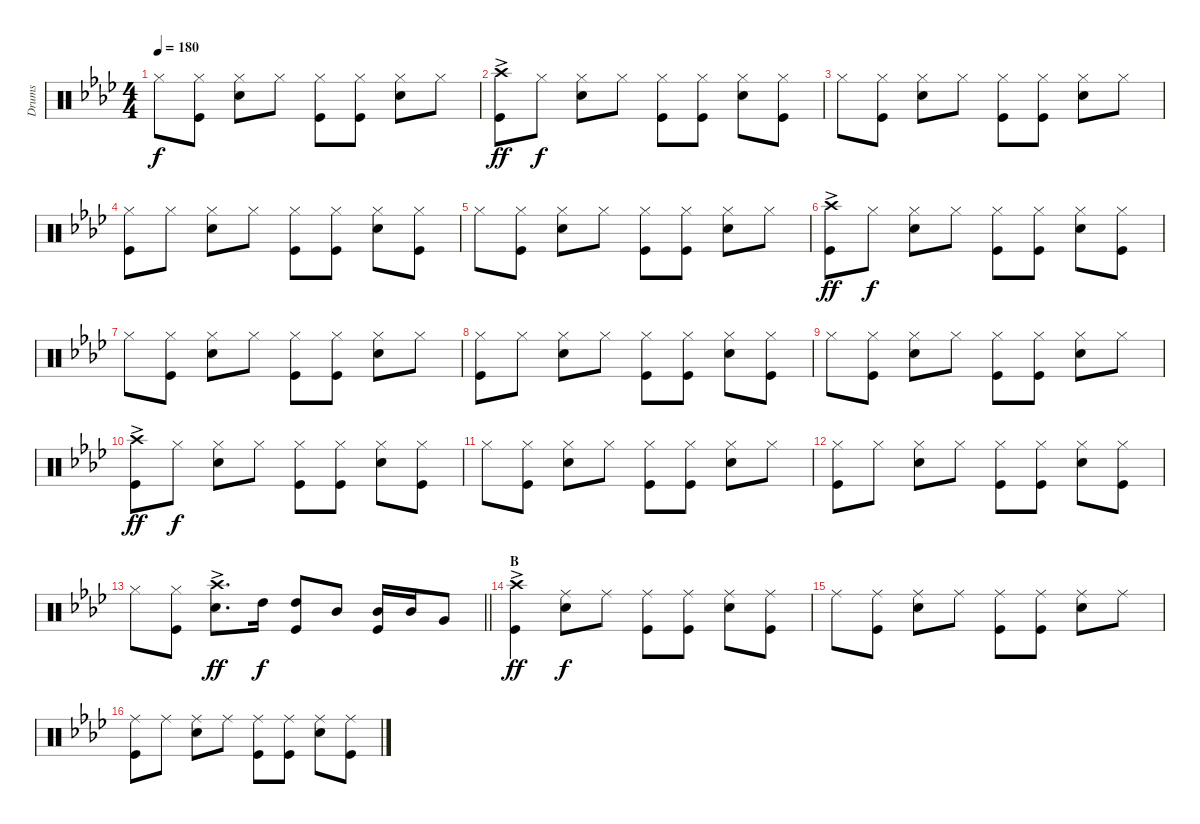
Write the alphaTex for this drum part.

\track ("Drums" "Drums") {instrument percussion}
\staff {score}
\articulation defaults
\ts (4 4)
\tempo 180
\clef neutral
\ks ab "Hi-Hat (closed)".8{dy f}
("Hi-Hat (closed)" "Kick (hit)").8 ("Hi-Hat (closed)" "Snare (hit) 2").8 "Hi-Hat (closed)".8 ("Hi-Hat (closed)" "Kick (hit)").8 ("Hi-Hat (closed)" "Kick (hit)").8 ("Hi-Hat (closed)" "Snare (hit) 2").8 "Hi-Hat (closed)".8 |
("Crash high (hit)"{ac} "Kick (hit)").8{dy ff} "Hi-Hat (closed)".8{dy f} ("Hi-Hat (closed)" "Snare (hit) 2").8 "Hi-Hat (closed)".8 ("Hi-Hat (closed)" "Kick (hit)").8 ("Hi-Hat (closed)" "Kick (hit)").8 ("Hi-Hat (closed)" "Snare (hit) 2").8 ("Hi-Hat (closed)" "Kick (hit)").8 |
"Hi-Hat (closed)".8 ("Hi-Hat (closed)" "Kick (hit)").8 ("Hi-Hat (closed)" "Snare (hit) 2").8 "Hi-Hat (closed)".8 ("Hi-Hat (closed)" "Kick (hit)").8 ("Hi-Hat (closed)" "Kick (hit)").8 ("Hi-Hat (closed)" "Snare (hit) 2").8 "Hi-Hat (closed)".8 |
("Hi-Hat (closed)" "Kick (hit)").8 "Hi-Hat (closed)".8 ("Hi-Hat (closed)" "Snare (hit) 2").8 "Hi-Hat (closed)".8 ("Hi-Hat (closed)" "Kick (hit)").8 ("Hi-Hat (closed)" "Kick (hit)").8 ("Hi-Hat (closed)" "Snare (hit) 2").8 ("Hi-Hat (closed)" "Kick (hit)").8 |
"Hi-Hat (closed)".8 ("Hi-Hat (closed)" "Kick (hit)").8 ("Hi-Hat (closed)" "Snare (hit) 2").8 "Hi-Hat (closed)".8 ("Hi-Hat (closed)" "Kick (hit)").8 ("Hi-Hat (closed)" "Kick (hit)").8 ("Hi-Hat (closed)" "Snare (hit) 2").8 "Hi-Hat (closed)".8 |
("Crash high (hit)"{ac} "Kick (hit)").8{dy ff} "Hi-Hat (closed)".8{dy f} ("Hi-Hat (closed)" "Snare (hit) 2").8 "Hi-Hat (closed)".8 ("Hi-Hat (closed)" "Kick (hit)").8 ("Hi-Hat (closed)" "Kick (hit)").8 ("Hi-Hat (closed)" "Snare (hit) 2").8 ("Hi-Hat (closed)" "Kick (hit)").8 |
"Hi-Hat (closed)".8 ("Hi-Hat (closed)" "Kick (hit)").8 ("Hi-Hat (closed)" "Snare (hit) 2").8 "Hi-Hat (closed)".8 ("Hi-Hat (closed)" "Kick (hit)").8 ("Hi-Hat (closed)" "Kick (hit)").8 ("Hi-Hat (closed)" "Snare (hit) 2").8 "Hi-Hat (closed)".8 |
("Hi-Hat (closed)" "Kick (hit)").8 "Hi-Hat (closed)".8 ("Hi-Hat (closed)" "Snare (hit) 2").8 "Hi-Hat (closed)".8 ("Hi-Hat (closed)" "Kick (hit)").8 ("Hi-Hat (closed)" "Kick (hit)").8 ("Hi-Hat (closed)" "Snare (hit) 2").8 ("Hi-Hat (closed)" "Kick (hit)").8 |
"Hi-Hat (closed)".8 ("Hi-Hat (closed)" "Kick (hit)").8 ("Hi-Hat (closed)" "Snare (hit) 2").8 "Hi-Hat (closed)".8 ("Hi-Hat (closed)" "Kick (hit)").8 ("Hi-Hat (closed)" "Kick (hit)").8 ("Hi-Hat (closed)" "Snare (hit) 2").8 "Hi-Hat (closed)".8 |
("Crash high (hit)"{ac} "Kick (hit)").8{dy ff} "Hi-Hat (closed)".8{dy f} ("Hi-Hat (closed)" "Snare (hit) 2").8 "Hi-Hat (closed)".8 ("Hi-Hat (closed)" "Kick (hit)").8 ("Hi-Hat (closed)" "Kick (hit)").8 ("Hi-Hat (closed)" "Snare (hit) 2").8 ("Hi-Hat (closed)" "Kick (hit)").8 |
"Hi-Hat (closed)".8 ("Hi-Hat (closed)" "Kick (hit)").8 ("Hi-Hat (closed)" "Snare (hit) 2").8 "Hi-Hat (closed)".8 ("Hi-Hat (closed)" "Kick (hit)").8 ("Hi-Hat (closed)" "Kick (hit)").8 ("Hi-Hat (closed)" "Snare (hit) 2").8 "Hi-Hat (closed)".8 |
("Hi-Hat (closed)" "Kick (hit)").8 "Hi-Hat (closed)".8 ("Hi-Hat (closed)" "Snare (hit) 2").8 "Hi-Hat (closed)".8 ("Hi-Hat (closed)" "Kick (hit)").8 ("Hi-Hat (closed)" "Kick (hit)").8 ("Hi-Hat (closed)" "Snare (hit) 2").8 ("Hi-Hat (closed)" "Kick (hit)").8 |
\barLineRight lightlight "Hi-Hat (closed)".8
("Hi-Hat (closed)" "Kick (hit)").8 ("Crash high (hit)"{ac} "Snare (hit) 2").8{d dy ff} "High Tom (hit)".16{dy f} ("High Tom (hit)" "Kick (hit)").8 "Mid Tom (hit)".8 ("Mid Tom (hit)" "Kick (hit)").16 "Mid Tom (hit)".16 "Very Low Tom (hit)".8 |
\section ("" "B")
("Crash high (hit)"{ac} "Kick (hit)").4{dy ff} ("Ride (middle)" "Snare (hit) 2").8{dy f} "Ride (middle)".8 ("Ride (middle)" "Kick (hit)").8 ("Ride (middle)" "Kick (hit)").8 ("Ride (middle)" "Snare (hit) 2").8 ("Ride (middle)" "Kick (hit)").8 |
"Ride (middle)".8 ("Ride (middle)" "Kick (hit)").8 ("Ride (middle)" "Snare (hit) 2").8 "Ride (middle)".8 ("Ride (middle)" "Kick (hit)").8 ("Ride (middle)" "Kick (hit)").8 ("Ride (middle)" "Snare (hit) 2").8 "Ride (middle)".8 |
("Ride (middle)" "Kick (hit)").8 "Ride (middle)".8 ("Ride (middle)" "Snare (hit) 2").8 "Ride (middle)".8 ("Ride (middle)" "Kick (hit)").8 ("Ride (middle)" "Kick (hit)").8 ("Ride (middle)" "Snare (hit) 2").8 ("Ride (middle)" "Kick (hit)").8
